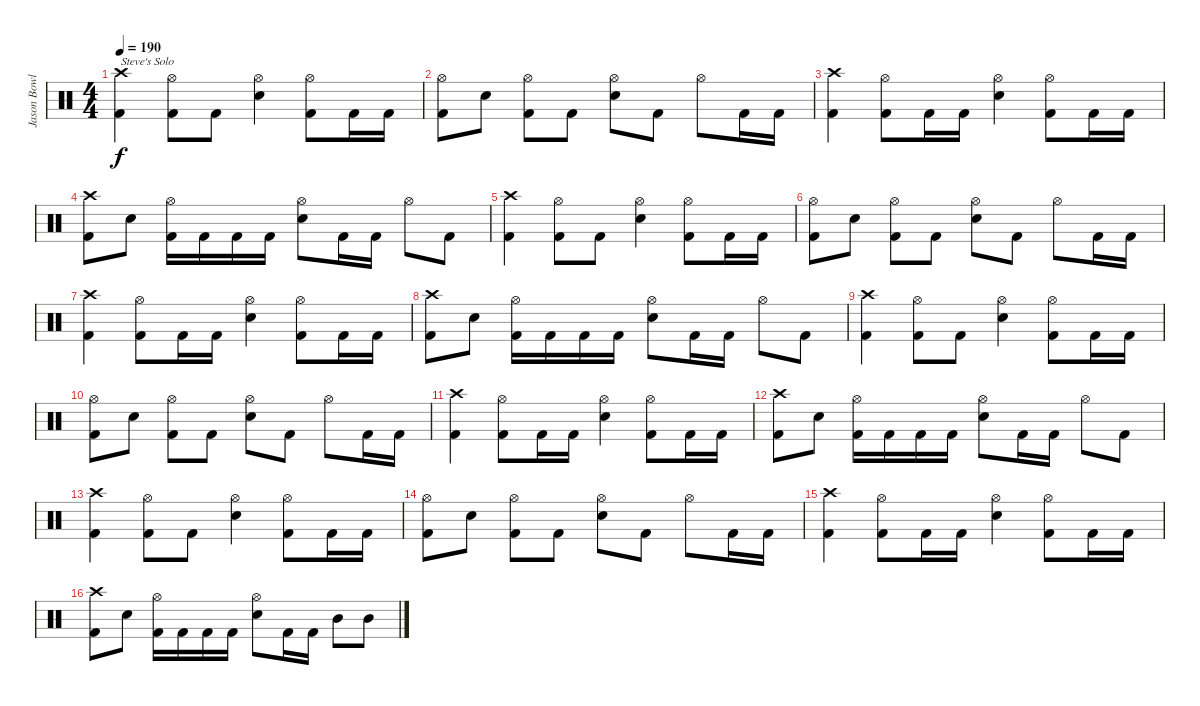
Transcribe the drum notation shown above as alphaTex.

\track ("Jason Bowld" "Jason Bowl") {instrument percussion}
\staff {score}
\articulation defaults
\ts (4 4)
\tempo 190
\clef neutral
\ks c
("Crash high (hit)" "Kick (hit) 2").4{txt "Steve's Solo" dy f} ("Hi-Hat (open)" "Kick (hit) 2").8 "Kick (hit) 2".8 ("Hi-Hat (open)" "Snare (hit) 2").4 ("Hi-Hat (open)" "Kick (hit) 2").8 "Kick (hit) 2".16 "Kick (hit) 2".16 |
("Hi-Hat (open)" "Kick (hit) 2").8 "Snare (hit) 2".8 ("Hi-Hat (open)" "Kick (hit) 2").8 "Kick (hit) 2".8 ("Hi-Hat (open)" "Snare (hit) 2").8 "Kick (hit) 2".8 "Hi-Hat (open)".8 "Kick (hit) 2".16 "Kick (hit) 2".16 |
("Crash high (hit)" "Kick (hit) 2").4 ("Hi-Hat (open)" "Kick (hit) 2").8 "Kick (hit) 2".16 "Kick (hit) 2".16 ("Hi-Hat (open)" "Snare (hit) 2").4 ("Hi-Hat (open)" "Kick (hit) 2").8 "Kick (hit) 2".16 "Kick (hit) 2".16 |
("Crash high (hit)" "Kick (hit) 2").8 "Snare (hit) 2".8 ("Hi-Hat (open)" "Kick (hit) 2").16 "Kick (hit) 2".16 "Kick (hit) 2".16 "Kick (hit) 2".16 ("Hi-Hat (open)" "Snare (hit) 2").8 "Kick (hit) 2".16 "Kick (hit) 2".16 "Hi-Hat (open)".8 "Kick (hit) 2".8 |
("Crash high (hit)" "Kick (hit) 2").4 ("Hi-Hat (open)" "Kick (hit) 2").8 "Kick (hit) 2".8 ("Hi-Hat (open)" "Snare (hit) 2").4 ("Hi-Hat (open)" "Kick (hit) 2").8 "Kick (hit) 2".16 "Kick (hit) 2".16 |
("Hi-Hat (open)" "Kick (hit) 2").8 "Snare (hit) 2".8 ("Hi-Hat (open)" "Kick (hit) 2").8 "Kick (hit) 2".8 ("Hi-Hat (open)" "Snare (hit) 2").8 "Kick (hit) 2".8 "Hi-Hat (open)".8 "Kick (hit) 2".16 "Kick (hit) 2".16 |
("Crash high (hit)" "Kick (hit) 2").4 ("Hi-Hat (open)" "Kick (hit) 2").8 "Kick (hit) 2".16 "Kick (hit) 2".16 ("Hi-Hat (open)" "Snare (hit) 2").4 ("Hi-Hat (open)" "Kick (hit) 2").8 "Kick (hit) 2".16 "Kick (hit) 2".16 |
("Crash high (hit)" "Kick (hit) 2").8 "Snare (hit) 2".8 ("Hi-Hat (open)" "Kick (hit) 2").16 "Kick (hit) 2".16 "Kick (hit) 2".16 "Kick (hit) 2".16 ("Hi-Hat (open)" "Snare (hit) 2").8 "Kick (hit) 2".16 "Kick (hit) 2".16 "Hi-Hat (open)".8 "Kick (hit) 2".8 |
("Crash high (hit)" "Kick (hit) 2").4 ("Hi-Hat (open)" "Kick (hit) 2").8 "Kick (hit) 2".8 ("Hi-Hat (open)" "Snare (hit) 2").4 ("Hi-Hat (open)" "Kick (hit) 2").8 "Kick (hit) 2".16 "Kick (hit) 2".16 |
("Hi-Hat (open)" "Kick (hit) 2").8 "Snare (hit) 2".8 ("Hi-Hat (open)" "Kick (hit) 2").8 "Kick (hit) 2".8 ("Hi-Hat (open)" "Snare (hit) 2").8 "Kick (hit) 2".8 "Hi-Hat (open)".8 "Kick (hit) 2".16 "Kick (hit) 2".16 |
("Crash high (hit)" "Kick (hit) 2").4 ("Hi-Hat (open)" "Kick (hit) 2").8 "Kick (hit) 2".16 "Kick (hit) 2".16 ("Hi-Hat (open)" "Snare (hit) 2").4 ("Hi-Hat (open)" "Kick (hit) 2").8 "Kick (hit) 2".16 "Kick (hit) 2".16 |
("Crash high (hit)" "Kick (hit) 2").8 "Snare (hit) 2".8 ("Hi-Hat (open)" "Kick (hit) 2").16 "Kick (hit) 2".16 "Kick (hit) 2".16 "Kick (hit) 2".16 ("Hi-Hat (open)" "Snare (hit) 2").8 "Kick (hit) 2".16 "Kick (hit) 2".16 "Hi-Hat (open)".8 "Kick (hit) 2".8 |
("Crash high (hit)" "Kick (hit) 2").4 ("Hi-Hat (open)" "Kick (hit) 2").8 "Kick (hit) 2".8 ("Hi-Hat (open)" "Snare (hit) 2").4 ("Hi-Hat (open)" "Kick (hit) 2").8 "Kick (hit) 2".16 "Kick (hit) 2".16 |
("Hi-Hat (open)" "Kick (hit) 2").8 "Snare (hit) 2".8 ("Hi-Hat (open)" "Kick (hit) 2").8 "Kick (hit) 2".8 ("Hi-Hat (open)" "Snare (hit) 2").8 "Kick (hit) 2".8 "Hi-Hat (open)".8 "Kick (hit) 2".16 "Kick (hit) 2".16 |
("Crash high (hit)" "Kick (hit) 2").4 ("Hi-Hat (open)" "Kick (hit) 2").8 "Kick (hit) 2".16 "Kick (hit) 2".16 ("Hi-Hat (open)" "Snare (hit) 2").4 ("Hi-Hat (open)" "Kick (hit) 2").8 "Kick (hit) 2".16 "Kick (hit) 2".16 |
("Crash high (hit)" "Kick (hit) 2").8 "Snare (hit) 2".8 ("Hi-Hat (open)" "Kick (hit) 2").16 "Kick (hit) 2".16 "Kick (hit) 2".16 "Kick (hit) 2".16 ("Hi-Hat (open)" "Snare (hit) 2").8 "Kick (hit) 2".16 "Kick (hit) 2".16 "Mid Tom (hit)".8 "Mid Tom (hit)".8
